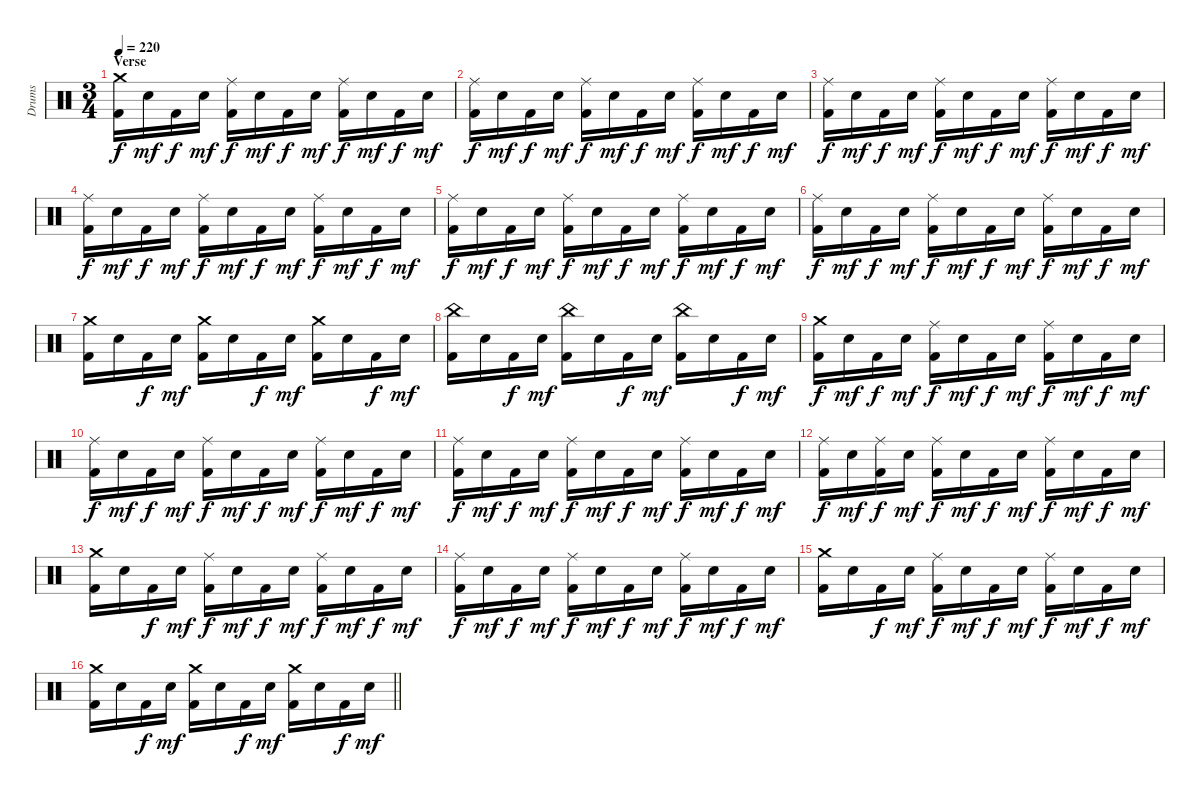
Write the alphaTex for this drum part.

\track ("Drums" "Drums") {instrument percussion}
\staff {score}
\articulation defaults
\ts (3 4)
\section ("" "Verse")
\tempo 220
\clef neutral
\ks c
("Crash medium (hit)" "Kick (hit) 2").16{dy f} "Electric Snare (hit)".16{dy mf} "Kick (hit) 2".16{dy f} "Electric Snare (hit)".16{dy mf} ("Ride (middle)" "Kick (hit) 2").16{dy f} "Electric Snare (hit)".16{dy mf} "Kick (hit) 2".16{dy f} "Electric Snare (hit)".16{dy mf} ("Ride (middle)" "Kick (hit) 2").16{dy f} "Electric Snare (hit)".16{dy mf} "Kick (hit) 2".16{dy f} "Electric Snare (hit)".16{dy mf} |
("Ride (middle)" "Kick (hit) 2").16{dy f} "Electric Snare (hit)".16{dy mf} "Kick (hit) 2".16{dy f} "Electric Snare (hit)".16{dy mf} ("Ride (middle)" "Kick (hit) 2").16{dy f} "Electric Snare (hit)".16{dy mf} "Kick (hit) 2".16{dy f} "Electric Snare (hit)".16{dy mf} ("Ride (middle)" "Kick (hit) 2").16{dy f} "Electric Snare (hit)".16{dy mf} "Kick (hit) 2".16{dy f} "Electric Snare (hit)".16{dy mf} |
("Ride (middle)" "Kick (hit) 2").16{dy f} "Electric Snare (hit)".16{dy mf} "Kick (hit) 2".16{dy f} "Electric Snare (hit)".16{dy mf} ("Ride (middle)" "Kick (hit) 2").16{dy f} "Electric Snare (hit)".16{dy mf} "Kick (hit) 2".16{dy f} "Electric Snare (hit)".16{dy mf} ("Ride (middle)" "Kick (hit) 2").16{dy f} "Electric Snare (hit)".16{dy mf} "Kick (hit) 2".16{dy f} "Electric Snare (hit)".16{dy mf} |
("Ride (middle)" "Kick (hit) 2").16{dy f} "Electric Snare (hit)".16{dy mf} "Kick (hit) 2".16{dy f} "Electric Snare (hit)".16{dy mf} ("Ride (middle)" "Kick (hit) 2").16{dy f} "Electric Snare (hit)".16{dy mf} "Kick (hit) 2".16{dy f} "Electric Snare (hit)".16{dy mf} ("Ride (middle)" "Kick (hit) 2").16{dy f} "Electric Snare (hit)".16{dy mf} "Kick (hit) 2".16{dy f} "Electric Snare (hit)".16{dy mf} |
("Ride (middle)" "Kick (hit) 2").16{dy f} "Electric Snare (hit)".16{dy mf} "Kick (hit) 2".16{dy f} "Electric Snare (hit)".16{dy mf} ("Ride (middle)" "Kick (hit) 2").16{dy f} "Electric Snare (hit)".16{dy mf} "Kick (hit) 2".16{dy f} "Electric Snare (hit)".16{dy mf} ("Ride (middle)" "Kick (hit) 2").16{dy f} "Electric Snare (hit)".16{dy mf} "Kick (hit) 2".16{dy f} "Electric Snare (hit)".16{dy mf} |
("Ride (middle)" "Kick (hit) 2").16{dy f} "Electric Snare (hit)".16{dy mf} "Kick (hit) 2".16{dy f} "Electric Snare (hit)".16{dy mf} ("Ride (middle)" "Kick (hit) 2").16{dy f} "Electric Snare (hit)".16{dy mf} "Kick (hit) 2".16{dy f} "Electric Snare (hit)".16{dy mf} ("Ride (middle)" "Kick (hit) 2").16{dy f} "Electric Snare (hit)".16{dy mf} "Kick (hit) 2".16{dy f} "Electric Snare (hit)".16{dy mf} |
("Crash medium (hit)" "Kick (hit) 2").16 "Electric Snare (hit)".16 "Kick (hit) 2".16{dy f} "Electric Snare (hit)".16{dy mf} ("Crash medium (hit)" "Kick (hit) 2").16 "Electric Snare (hit)".16 "Kick (hit) 2".16{dy f} "Electric Snare (hit)".16{dy mf} ("Crash medium (hit)" "Kick (hit) 2").16 "Electric Snare (hit)".16 "Kick (hit) 2".16{dy f} "Electric Snare (hit)".16{dy mf} |
("China (hit)" "Kick (hit) 2").16 "Electric Snare (hit)".16 "Kick (hit) 2".16{dy f} "Electric Snare (hit)".16{dy mf} ("China (hit)" "Kick (hit) 2").16 "Electric Snare (hit)".16 "Kick (hit) 2".16{dy f} "Electric Snare (hit)".16{dy mf} ("China (hit)" "Kick (hit) 2").16 "Electric Snare (hit)".16 "Kick (hit) 2".16{dy f} "Electric Snare (hit)".16{dy mf} |
("Crash medium (hit)" "Kick (hit) 2").16{dy f} "Electric Snare (hit)".16{dy mf} "Kick (hit) 2".16{dy f} "Electric Snare (hit)".16{dy mf} ("Ride (middle)" "Kick (hit) 2").16{dy f} "Electric Snare (hit)".16{dy mf} "Kick (hit) 2".16{dy f} "Electric Snare (hit)".16{dy mf} ("Ride (middle)" "Kick (hit) 2").16{dy f} "Electric Snare (hit)".16{dy mf} "Kick (hit) 2".16{dy f} "Electric Snare (hit)".16{dy mf} |
("Ride (middle)" "Kick (hit) 2").16{dy f} "Electric Snare (hit)".16{dy mf} "Kick (hit) 2".16{dy f} "Electric Snare (hit)".16{dy mf} ("Ride (middle)" "Kick (hit) 2").16{dy f} "Electric Snare (hit)".16{dy mf} "Kick (hit) 2".16{dy f} "Electric Snare (hit)".16{dy mf} ("Ride (middle)" "Kick (hit) 2").16{dy f} "Electric Snare (hit)".16{dy mf} "Kick (hit) 2".16{dy f} "Electric Snare (hit)".16{dy mf} |
("Ride (middle)" "Kick (hit) 2").16{dy f} "Electric Snare (hit)".16{dy mf} "Kick (hit) 2".16{dy f} "Electric Snare (hit)".16{dy mf} ("Ride (middle)" "Kick (hit) 2").16{dy f} "Electric Snare (hit)".16{dy mf} "Kick (hit) 2".16{dy f} "Electric Snare (hit)".16{dy mf} ("Ride (middle)" "Kick (hit) 2").16{dy f} "Electric Snare (hit)".16{dy mf} "Kick (hit) 2".16{dy f} "Electric Snare (hit)".16{dy mf} |
("Ride (middle)" "Kick (hit) 2").16{dy f} "Electric Snare (hit)".16{dy mf} ("Ride (middle)" "Kick (hit) 2").16{dy f} "Electric Snare (hit)".16{dy mf} ("Ride (middle)" "Kick (hit) 2").16{dy f} "Electric Snare (hit)".16{dy mf} "Kick (hit) 2".16{dy f} "Electric Snare (hit)".16{dy mf} ("Ride (middle)" "Kick (hit) 2").16{dy f} "Electric Snare (hit)".16{dy mf} "Kick (hit) 2".16{dy f} "Electric Snare (hit)".16{dy mf} |
("Crash medium (hit)" "Kick (hit) 2").16 "Electric Snare (hit)".16 "Kick (hit) 2".16{dy f} "Electric Snare (hit)".16{dy mf} ("Ride (middle)" "Kick (hit) 2").16{dy f} "Electric Snare (hit)".16{dy mf} "Kick (hit) 2".16{dy f} "Electric Snare (hit)".16{dy mf} ("Ride (middle)" "Kick (hit) 2").16{dy f} "Electric Snare (hit)".16{dy mf} "Kick (hit) 2".16{dy f} "Electric Snare (hit)".16{dy mf} |
("Ride (middle)" "Kick (hit) 2").16{dy f} "Electric Snare (hit)".16{dy mf} "Kick (hit) 2".16{dy f} "Electric Snare (hit)".16{dy mf} ("Ride (middle)" "Kick (hit) 2").16{dy f} "Electric Snare (hit)".16{dy mf} "Kick (hit) 2".16{dy f} "Electric Snare (hit)".16{dy mf} ("Ride (middle)" "Kick (hit) 2").16{dy f} "Electric Snare (hit)".16{dy mf} "Kick (hit) 2".16{dy f} "Electric Snare (hit)".16{dy mf} |
("Crash medium (hit)" "Kick (hit) 2").16 "Electric Snare (hit)".16 "Kick (hit) 2".16{dy f} "Electric Snare (hit)".16{dy mf} ("Ride (middle)" "Kick (hit) 2").16{dy f} "Electric Snare (hit)".16{dy mf} "Kick (hit) 2".16{dy f} "Electric Snare (hit)".16{dy mf} ("Ride (middle)" "Kick (hit) 2").16{dy f} "Electric Snare (hit)".16{dy mf} "Kick (hit) 2".16{dy f} "Electric Snare (hit)".16{dy mf} |
\barLineRight lightlight
("Crash medium (hit)" "Kick (hit) 2").16 "Electric Snare (hit)".16 "Kick (hit) 2".16{dy f} "Electric Snare (hit)".16{dy mf} ("Crash medium (hit)" "Kick (hit) 2").16 "Electric Snare (hit)".16 "Kick (hit) 2".16{dy f} "Electric Snare (hit)".16{dy mf} ("Crash medium (hit)" "Kick (hit) 2").16 "Electric Snare (hit)".16 "Kick (hit) 2".16{dy f} "Electric Snare (hit)".16{dy mf}
